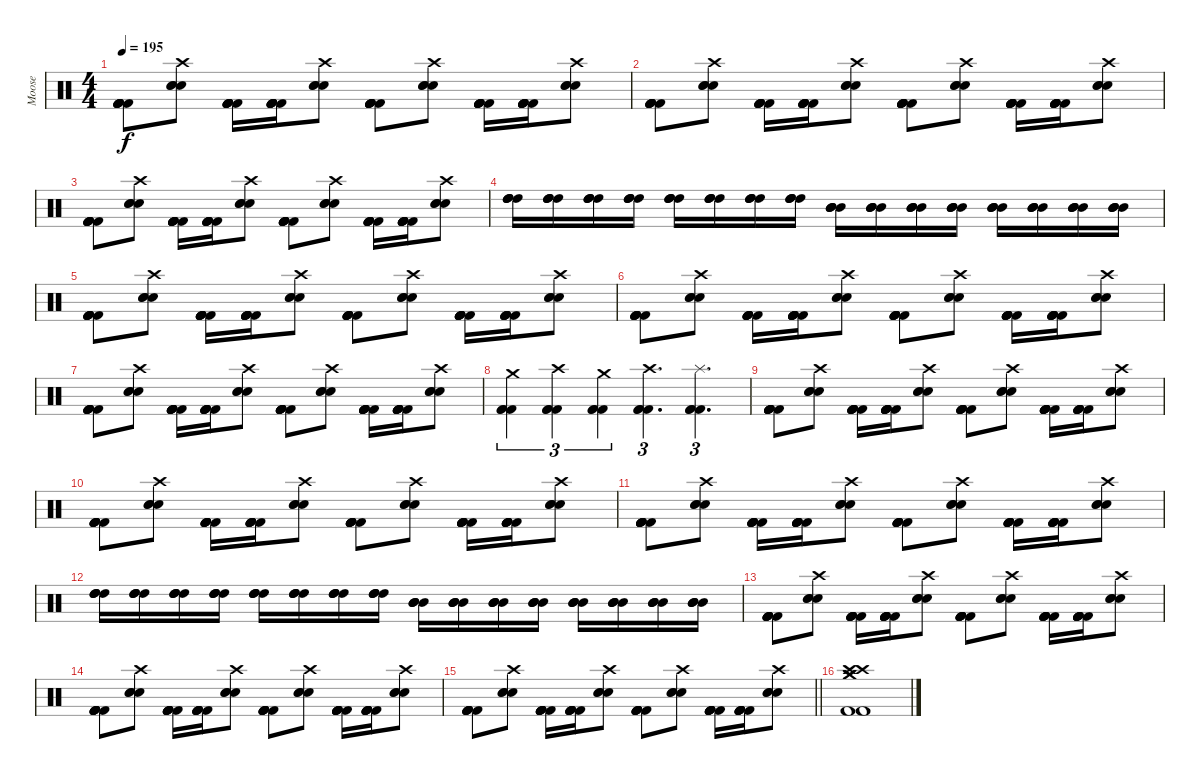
\track ("Moose" "Moose") {instrument percussion}
\staff {score}
\articulation defaults
\ts (4 4)
\tempo 195
\clef neutral
\ks c
("Kick (hit) 2" "Kick (hit) 2" "Kick (hit) 2" "Kick (hit) 2" "Kick (hit) 2" "Kick (hit) 2").8{dy f} ("Electric Snare (hit)" "Electric Snare (hit)" "Electric Snare (hit)" "Crash high (hit)").8 ("Kick (hit) 2" "Kick (hit) 2" "Kick (hit) 2" "Kick (hit) 2" "Kick (hit) 2" "Kick (hit) 2").16 ("Kick (hit) 2" "Kick (hit) 2" "Kick (hit) 2" "Kick (hit) 2" "Kick (hit) 2" "Kick (hit) 2").16 ("Electric Snare (hit)" "Electric Snare (hit)" "Electric Snare (hit)" "Crash high (hit)").8 ("Kick (hit) 2" "Kick (hit) 2" "Kick (hit) 2" "Kick (hit) 2" "Kick (hit) 2" "Kick (hit) 2").8 ("Electric Snare (hit)" "Electric Snare (hit)" "Electric Snare (hit)" "Crash high (hit)").8 ("Kick (hit) 2" "Kick (hit) 2" "Kick (hit) 2" "Kick (hit) 2" "Kick (hit) 2" "Kick (hit) 2").16 ("Kick (hit) 2" "Kick (hit) 2" "Kick (hit) 2" "Kick (hit) 2" "Kick (hit) 2" "Kick (hit) 2").16 ("Electric Snare (hit)" "Electric Snare (hit)" "Electric Snare (hit)" "Crash high (hit)").8 |
("Kick (hit) 2" "Kick (hit) 2" "Kick (hit) 2" "Kick (hit) 2" "Kick (hit) 2" "Kick (hit) 2").8 ("Electric Snare (hit)" "Electric Snare (hit)" "Electric Snare (hit)" "Crash high (hit)").8 ("Kick (hit) 2" "Kick (hit) 2" "Kick (hit) 2" "Kick (hit) 2" "Kick (hit) 2" "Kick (hit) 2").16 ("Kick (hit) 2" "Kick (hit) 2" "Kick (hit) 2" "Kick (hit) 2" "Kick (hit) 2" "Kick (hit) 2").16 ("Electric Snare (hit)" "Electric Snare (hit)" "Electric Snare (hit)" "Crash high (hit)").8 ("Kick (hit) 2" "Kick (hit) 2" "Kick (hit) 2" "Kick (hit) 2" "Kick (hit) 2" "Kick (hit) 2").8 ("Electric Snare (hit)" "Electric Snare (hit)" "Electric Snare (hit)" "Crash high (hit)").8 ("Kick (hit) 2" "Kick (hit) 2" "Kick (hit) 2" "Kick (hit) 2" "Kick (hit) 2" "Kick (hit) 2").16 ("Kick (hit) 2" "Kick (hit) 2" "Kick (hit) 2" "Kick (hit) 2" "Kick (hit) 2" "Kick (hit) 2").16 ("Electric Snare (hit)" "Electric Snare (hit)" "Electric Snare (hit)" "Crash high (hit)").8 |
("Kick (hit) 2" "Kick (hit) 2" "Kick (hit) 2" "Kick (hit) 2" "Kick (hit) 2" "Kick (hit) 2").8 ("Electric Snare (hit)" "Electric Snare (hit)" "Electric Snare (hit)" "Crash high (hit)").8 ("Kick (hit) 2" "Kick (hit) 2" "Kick (hit) 2" "Kick (hit) 2" "Kick (hit) 2" "Kick (hit) 2").16 ("Kick (hit) 2" "Kick (hit) 2" "Kick (hit) 2" "Kick (hit) 2" "Kick (hit) 2" "Kick (hit) 2").16 ("Electric Snare (hit)" "Electric Snare (hit)" "Electric Snare (hit)" "Crash high (hit)").8 ("Kick (hit) 2" "Kick (hit) 2" "Kick (hit) 2" "Kick (hit) 2" "Kick (hit) 2" "Kick (hit) 2").8 ("Electric Snare (hit)" "Electric Snare (hit)" "Electric Snare (hit)" "Crash high (hit)").8 ("Kick (hit) 2" "Kick (hit) 2" "Kick (hit) 2" "Kick (hit) 2" "Kick (hit) 2" "Kick (hit) 2").16 ("Kick (hit) 2" "Kick (hit) 2" "Kick (hit) 2" "Kick (hit) 2" "Kick (hit) 2" "Kick (hit) 2").16 ("Electric Snare (hit)" "Electric Snare (hit)" "Electric Snare (hit)" "Crash high (hit)").8 |
("High Tom (hit)" "High Tom (hit)" "High Tom (hit)" "High Tom (hit)").16 ("High Tom (hit)" "High Tom (hit)" "High Tom (hit)" "High Tom (hit)").16 ("High Tom (hit)" "High Tom (hit)" "High Tom (hit)" "High Tom (hit)").16 ("High Tom (hit)" "High Tom (hit)" "High Tom (hit)" "High Tom (hit)").16 ("High Tom (hit)" "High Tom (hit)" "High Tom (hit)" "High Tom (hit)").16 ("High Tom (hit)" "High Tom (hit)" "High Tom (hit)" "High Tom (hit)").16 ("High Tom (hit)" "High Tom (hit)" "High Tom (hit)" "High Tom (hit)").16 ("High Tom (hit)" "High Tom (hit)" "High Tom (hit)" "High Tom (hit)").16 ("Mid Tom (hit)" "Mid Tom (hit)" "Mid Tom (hit)" "Mid Tom (hit)").16 ("Mid Tom (hit)" "Mid Tom (hit)" "Mid Tom (hit)" "Mid Tom (hit)").16 ("Mid Tom (hit)" "Mid Tom (hit)" "Mid Tom (hit)" "Mid Tom (hit)").16 ("Mid Tom (hit)" "Mid Tom (hit)" "Mid Tom (hit)" "Mid Tom (hit)").16 ("Mid Tom (hit)" "Mid Tom (hit)" "Mid Tom (hit)" "Mid Tom (hit)").16 ("Mid Tom (hit)" "Mid Tom (hit)" "Mid Tom (hit)" "Mid Tom (hit)").16 ("Mid Tom (hit)" "Mid Tom (hit)" "Mid Tom (hit)" "Mid Tom (hit)").16 ("Mid Tom (hit)" "Mid Tom (hit)" "Mid Tom (hit)" "Mid Tom (hit)").16 |
("Kick (hit) 2" "Kick (hit) 2" "Kick (hit) 2" "Kick (hit) 2" "Kick (hit) 2" "Kick (hit) 2").8 ("Electric Snare (hit)" "Electric Snare (hit)" "Electric Snare (hit)" "Crash high (hit)").8 ("Kick (hit) 2" "Kick (hit) 2" "Kick (hit) 2" "Kick (hit) 2" "Kick (hit) 2" "Kick (hit) 2").16 ("Kick (hit) 2" "Kick (hit) 2" "Kick (hit) 2" "Kick (hit) 2" "Kick (hit) 2" "Kick (hit) 2").16 ("Electric Snare (hit)" "Electric Snare (hit)" "Electric Snare (hit)" "Crash high (hit)").8 ("Kick (hit) 2" "Kick (hit) 2" "Kick (hit) 2" "Kick (hit) 2" "Kick (hit) 2" "Kick (hit) 2").8 ("Electric Snare (hit)" "Electric Snare (hit)" "Electric Snare (hit)" "Crash high (hit)").8 ("Kick (hit) 2" "Kick (hit) 2" "Kick (hit) 2" "Kick (hit) 2" "Kick (hit) 2" "Kick (hit) 2").16 ("Kick (hit) 2" "Kick (hit) 2" "Kick (hit) 2" "Kick (hit) 2" "Kick (hit) 2" "Kick (hit) 2").16 ("Electric Snare (hit)" "Electric Snare (hit)" "Electric Snare (hit)" "Crash high (hit)").8 |
("Kick (hit) 2" "Kick (hit) 2" "Kick (hit) 2" "Kick (hit) 2" "Kick (hit) 2" "Kick (hit) 2").8 ("Electric Snare (hit)" "Electric Snare (hit)" "Electric Snare (hit)" "Crash high (hit)").8 ("Kick (hit) 2" "Kick (hit) 2" "Kick (hit) 2" "Kick (hit) 2" "Kick (hit) 2" "Kick (hit) 2").16 ("Kick (hit) 2" "Kick (hit) 2" "Kick (hit) 2" "Kick (hit) 2" "Kick (hit) 2" "Kick (hit) 2").16 ("Electric Snare (hit)" "Electric Snare (hit)" "Electric Snare (hit)" "Crash high (hit)").8 ("Kick (hit) 2" "Kick (hit) 2" "Kick (hit) 2" "Kick (hit) 2" "Kick (hit) 2" "Kick (hit) 2").8 ("Electric Snare (hit)" "Electric Snare (hit)" "Electric Snare (hit)" "Crash high (hit)").8 ("Kick (hit) 2" "Kick (hit) 2" "Kick (hit) 2" "Kick (hit) 2" "Kick (hit) 2" "Kick (hit) 2").16 ("Kick (hit) 2" "Kick (hit) 2" "Kick (hit) 2" "Kick (hit) 2" "Kick (hit) 2" "Kick (hit) 2").16 ("Electric Snare (hit)" "Electric Snare (hit)" "Electric Snare (hit)" "Crash high (hit)").8 |
("Kick (hit) 2" "Kick (hit) 2" "Kick (hit) 2" "Kick (hit) 2" "Kick (hit) 2" "Kick (hit) 2").8 ("Electric Snare (hit)" "Electric Snare (hit)" "Electric Snare (hit)" "Crash high (hit)").8 ("Kick (hit) 2" "Kick (hit) 2" "Kick (hit) 2" "Kick (hit) 2" "Kick (hit) 2" "Kick (hit) 2").16 ("Kick (hit) 2" "Kick (hit) 2" "Kick (hit) 2" "Kick (hit) 2" "Kick (hit) 2" "Kick (hit) 2").16 ("Electric Snare (hit)" "Electric Snare (hit)" "Electric Snare (hit)" "Crash high (hit)").8 ("Kick (hit) 2" "Kick (hit) 2" "Kick (hit) 2" "Kick (hit) 2" "Kick (hit) 2" "Kick (hit) 2").8 ("Electric Snare (hit)" "Electric Snare (hit)" "Electric Snare (hit)" "Crash high (hit)").8 ("Kick (hit) 2" "Kick (hit) 2" "Kick (hit) 2" "Kick (hit) 2" "Kick (hit) 2" "Kick (hit) 2").16 ("Kick (hit) 2" "Kick (hit) 2" "Kick (hit) 2" "Kick (hit) 2" "Kick (hit) 2" "Kick (hit) 2").16 ("Electric Snare (hit)" "Electric Snare (hit)" "Electric Snare (hit)" "Crash high (hit)").8 |
("Kick (hit) 2" "Kick (hit) 2" "Kick (hit) 2" "Crash medium (hit)").4{tu (3 2)} ("Kick (hit) 2" "Kick (hit) 2" "Kick (hit) 2" "Crash high (hit)").4{tu (3 2)} ("Kick (hit) 2" "Kick (hit) 2" "Kick (hit) 2" "Crash medium (hit)").4{tu (3 2)} ("Kick (hit) 2" "Kick (hit) 2" "Kick (hit) 2" "Crash high (hit)").4{d tu (3 2)} ("Kick (hit) 2" "Kick (hit) 2" "Kick (hit) 2" "Splash (hit)").4{d tu (3 2)} |
("Kick (hit) 2" "Kick (hit) 2" "Kick (hit) 2" "Kick (hit) 2" "Kick (hit) 2" "Kick (hit) 2").8 ("Electric Snare (hit)" "Electric Snare (hit)" "Electric Snare (hit)" "Crash high (hit)").8 ("Kick (hit) 2" "Kick (hit) 2" "Kick (hit) 2" "Kick (hit) 2" "Kick (hit) 2" "Kick (hit) 2").16 ("Kick (hit) 2" "Kick (hit) 2" "Kick (hit) 2" "Kick (hit) 2" "Kick (hit) 2" "Kick (hit) 2").16 ("Electric Snare (hit)" "Electric Snare (hit)" "Electric Snare (hit)" "Crash high (hit)").8 ("Kick (hit) 2" "Kick (hit) 2" "Kick (hit) 2" "Kick (hit) 2" "Kick (hit) 2" "Kick (hit) 2").8 ("Electric Snare (hit)" "Electric Snare (hit)" "Electric Snare (hit)" "Crash high (hit)").8 ("Kick (hit) 2" "Kick (hit) 2" "Kick (hit) 2" "Kick (hit) 2" "Kick (hit) 2" "Kick (hit) 2").16 ("Kick (hit) 2" "Kick (hit) 2" "Kick (hit) 2" "Kick (hit) 2" "Kick (hit) 2" "Kick (hit) 2").16 ("Electric Snare (hit)" "Electric Snare (hit)" "Electric Snare (hit)" "Crash high (hit)").8 |
("Kick (hit) 2" "Kick (hit) 2" "Kick (hit) 2" "Kick (hit) 2" "Kick (hit) 2" "Kick (hit) 2").8 ("Electric Snare (hit)" "Electric Snare (hit)" "Electric Snare (hit)" "Crash high (hit)").8 ("Kick (hit) 2" "Kick (hit) 2" "Kick (hit) 2" "Kick (hit) 2" "Kick (hit) 2" "Kick (hit) 2").16 ("Kick (hit) 2" "Kick (hit) 2" "Kick (hit) 2" "Kick (hit) 2" "Kick (hit) 2" "Kick (hit) 2").16 ("Electric Snare (hit)" "Electric Snare (hit)" "Electric Snare (hit)" "Crash high (hit)").8 ("Kick (hit) 2" "Kick (hit) 2" "Kick (hit) 2" "Kick (hit) 2" "Kick (hit) 2" "Kick (hit) 2").8 ("Electric Snare (hit)" "Electric Snare (hit)" "Electric Snare (hit)" "Crash high (hit)").8 ("Kick (hit) 2" "Kick (hit) 2" "Kick (hit) 2" "Kick (hit) 2" "Kick (hit) 2" "Kick (hit) 2").16 ("Kick (hit) 2" "Kick (hit) 2" "Kick (hit) 2" "Kick (hit) 2" "Kick (hit) 2" "Kick (hit) 2").16 ("Electric Snare (hit)" "Electric Snare (hit)" "Electric Snare (hit)" "Crash high (hit)").8 |
("Kick (hit) 2" "Kick (hit) 2" "Kick (hit) 2" "Kick (hit) 2" "Kick (hit) 2" "Kick (hit) 2").8 ("Electric Snare (hit)" "Electric Snare (hit)" "Electric Snare (hit)" "Crash high (hit)").8 ("Kick (hit) 2" "Kick (hit) 2" "Kick (hit) 2" "Kick (hit) 2" "Kick (hit) 2" "Kick (hit) 2").16 ("Kick (hit) 2" "Kick (hit) 2" "Kick (hit) 2" "Kick (hit) 2" "Kick (hit) 2" "Kick (hit) 2").16 ("Electric Snare (hit)" "Electric Snare (hit)" "Electric Snare (hit)" "Crash high (hit)").8 ("Kick (hit) 2" "Kick (hit) 2" "Kick (hit) 2" "Kick (hit) 2" "Kick (hit) 2" "Kick (hit) 2").8 ("Electric Snare (hit)" "Electric Snare (hit)" "Electric Snare (hit)" "Crash high (hit)").8 ("Kick (hit) 2" "Kick (hit) 2" "Kick (hit) 2" "Kick (hit) 2" "Kick (hit) 2" "Kick (hit) 2").16 ("Kick (hit) 2" "Kick (hit) 2" "Kick (hit) 2" "Kick (hit) 2" "Kick (hit) 2" "Kick (hit) 2").16 ("Electric Snare (hit)" "Electric Snare (hit)" "Electric Snare (hit)" "Crash high (hit)").8 |
("High Tom (hit)" "High Tom (hit)" "High Tom (hit)" "High Tom (hit)").16 ("High Tom (hit)" "High Tom (hit)" "High Tom (hit)" "High Tom (hit)").16 ("High Tom (hit)" "High Tom (hit)" "High Tom (hit)" "High Tom (hit)").16 ("High Tom (hit)" "High Tom (hit)" "High Tom (hit)" "High Tom (hit)").16 ("High Tom (hit)" "High Tom (hit)" "High Tom (hit)" "High Tom (hit)").16 ("High Tom (hit)" "High Tom (hit)" "High Tom (hit)" "High Tom (hit)").16 ("High Tom (hit)" "High Tom (hit)" "High Tom (hit)" "High Tom (hit)").16 ("High Tom (hit)" "High Tom (hit)" "High Tom (hit)" "High Tom (hit)").16 ("Mid Tom (hit)" "Mid Tom (hit)" "Mid Tom (hit)" "Mid Tom (hit)").16 ("Mid Tom (hit)" "Mid Tom (hit)" "Mid Tom (hit)" "Mid Tom (hit)").16 ("Mid Tom (hit)" "Mid Tom (hit)" "Mid Tom (hit)" "Mid Tom (hit)").16 ("Mid Tom (hit)" "Mid Tom (hit)" "Mid Tom (hit)" "Mid Tom (hit)").16 ("Mid Tom (hit)" "Mid Tom (hit)" "Mid Tom (hit)" "Mid Tom (hit)").16 ("Mid Tom (hit)" "Mid Tom (hit)" "Mid Tom (hit)" "Mid Tom (hit)").16 ("Mid Tom (hit)" "Mid Tom (hit)" "Mid Tom (hit)" "Mid Tom (hit)").16 ("Mid Tom (hit)" "Mid Tom (hit)" "Mid Tom (hit)" "Mid Tom (hit)").16 |
("Kick (hit) 2" "Kick (hit) 2" "Kick (hit) 2" "Kick (hit) 2" "Kick (hit) 2" "Kick (hit) 2").8 ("Electric Snare (hit)" "Electric Snare (hit)" "Electric Snare (hit)" "Crash high (hit)").8 ("Kick (hit) 2" "Kick (hit) 2" "Kick (hit) 2" "Kick (hit) 2" "Kick (hit) 2" "Kick (hit) 2").16 ("Kick (hit) 2" "Kick (hit) 2" "Kick (hit) 2" "Kick (hit) 2" "Kick (hit) 2" "Kick (hit) 2").16 ("Electric Snare (hit)" "Electric Snare (hit)" "Electric Snare (hit)" "Crash high (hit)").8 ("Kick (hit) 2" "Kick (hit) 2" "Kick (hit) 2" "Kick (hit) 2" "Kick (hit) 2" "Kick (hit) 2").8 ("Electric Snare (hit)" "Electric Snare (hit)" "Electric Snare (hit)" "Crash high (hit)").8 ("Kick (hit) 2" "Kick (hit) 2" "Kick (hit) 2" "Kick (hit) 2" "Kick (hit) 2" "Kick (hit) 2").16 ("Kick (hit) 2" "Kick (hit) 2" "Kick (hit) 2" "Kick (hit) 2" "Kick (hit) 2" "Kick (hit) 2").16 ("Electric Snare (hit)" "Electric Snare (hit)" "Electric Snare (hit)" "Crash high (hit)").8 |
("Kick (hit) 2" "Kick (hit) 2" "Kick (hit) 2" "Kick (hit) 2" "Kick (hit) 2" "Kick (hit) 2").8 ("Electric Snare (hit)" "Electric Snare (hit)" "Electric Snare (hit)" "Crash high (hit)").8 ("Kick (hit) 2" "Kick (hit) 2" "Kick (hit) 2" "Kick (hit) 2" "Kick (hit) 2" "Kick (hit) 2").16 ("Kick (hit) 2" "Kick (hit) 2" "Kick (hit) 2" "Kick (hit) 2" "Kick (hit) 2" "Kick (hit) 2").16 ("Electric Snare (hit)" "Electric Snare (hit)" "Electric Snare (hit)" "Crash high (hit)").8 ("Kick (hit) 2" "Kick (hit) 2" "Kick (hit) 2" "Kick (hit) 2" "Kick (hit) 2" "Kick (hit) 2").8 ("Electric Snare (hit)" "Electric Snare (hit)" "Electric Snare (hit)" "Crash high (hit)").8 ("Kick (hit) 2" "Kick (hit) 2" "Kick (hit) 2" "Kick (hit) 2" "Kick (hit) 2" "Kick (hit) 2").16 ("Kick (hit) 2" "Kick (hit) 2" "Kick (hit) 2" "Kick (hit) 2" "Kick (hit) 2" "Kick (hit) 2").16 ("Electric Snare (hit)" "Electric Snare (hit)" "Electric Snare (hit)" "Crash high (hit)").8 |
\barLineRight lightlight
("Kick (hit) 2" "Kick (hit) 2" "Kick (hit) 2" "Kick (hit) 2" "Kick (hit) 2" "Kick (hit) 2").8 ("Electric Snare (hit)" "Electric Snare (hit)" "Electric Snare (hit)" "Crash high (hit)").8 ("Kick (hit) 2" "Kick (hit) 2" "Kick (hit) 2" "Kick (hit) 2" "Kick (hit) 2" "Kick (hit) 2").16 ("Kick (hit) 2" "Kick (hit) 2" "Kick (hit) 2" "Kick (hit) 2" "Kick (hit) 2" "Kick (hit) 2").16 ("Electric Snare (hit)" "Electric Snare (hit)" "Electric Snare (hit)" "Crash high (hit)").8 ("Kick (hit) 2" "Kick (hit) 2" "Kick (hit) 2" "Kick (hit) 2" "Kick (hit) 2" "Kick (hit) 2").8 ("Electric Snare (hit)" "Electric Snare (hit)" "Electric Snare (hit)" "Crash high (hit)").8 ("Kick (hit) 2" "Kick (hit) 2" "Kick (hit) 2" "Kick (hit) 2" "Kick (hit) 2" "Kick (hit) 2").16 ("Kick (hit) 2" "Kick (hit) 2" "Kick (hit) 2" "Kick (hit) 2" "Kick (hit) 2" "Kick (hit) 2").16 ("Electric Snare (hit)" "Electric Snare (hit)" "Electric Snare (hit)" "Crash high (hit)").8 |
("Kick (hit) 2" "Kick (hit) 2" "Crash medium (hit)" "Crash high (hit)" "Crash medium (hit)" "Crash high (hit)").1
